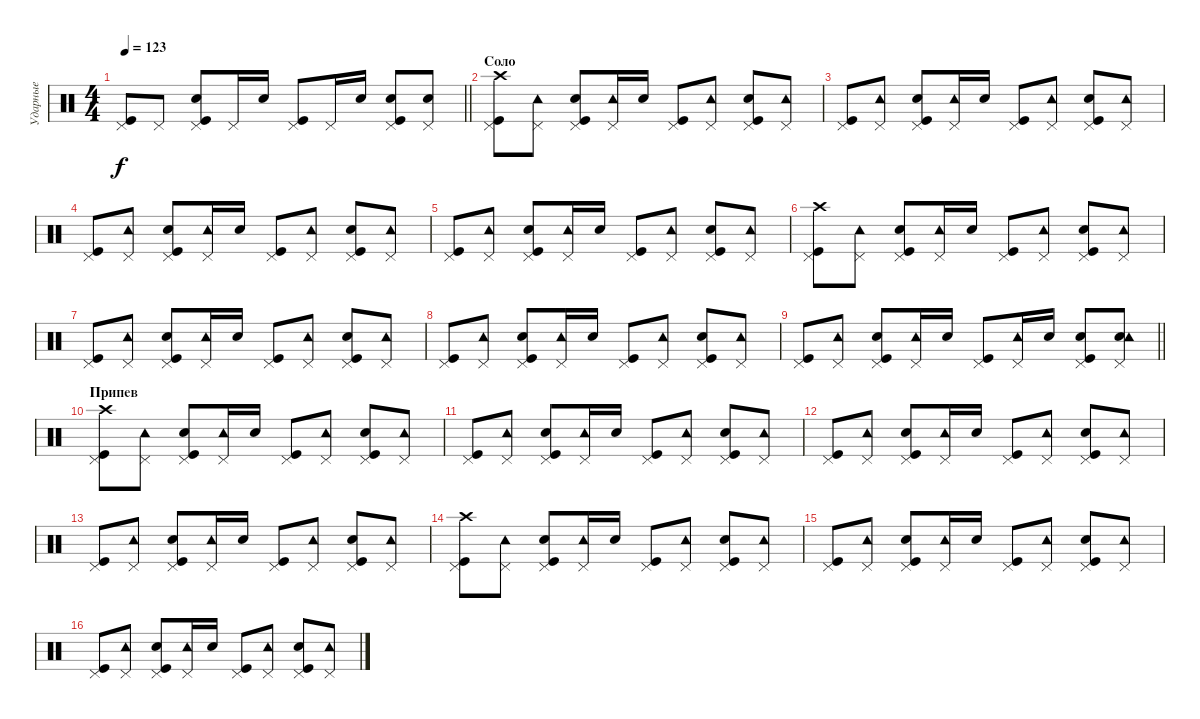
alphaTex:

\track ("Ударные" "Ударные") {instrument percussion}
\staff {score}
\articulation defaults
\ts (4 4)
\tempo 123
\clef neutral
\barLineRight lightlight
\ks c
("Kick (hit)" "Pedal Hi-Hat (hit)").8{dy f} "Pedal Hi-Hat (hit)".8 ("Kick (hit)" "Pedal Hi-Hat (hit)" "Snare (hit) 2").8 "Pedal Hi-Hat (hit)".16 "Snare (hit) 2".16 ("Kick (hit)" "Pedal Hi-Hat (hit)").8 "Pedal Hi-Hat (hit)".16 "Snare (hit) 2".16 ("Kick (hit)" "Pedal Hi-Hat (hit)" "Snare (hit) 2").8 ("Pedal Hi-Hat (hit)" "Snare (hit) 2").8 |
\section ("" "Соло")
("Kick (hit)" "Pedal Hi-Hat (hit)" "Crash high (hit)").8 ("Pedal Hi-Hat (hit)" "Tambourine (hit)").8 ("Kick (hit)" "Pedal Hi-Hat (hit)" "Snare (hit) 2").8 ("Pedal Hi-Hat (hit)" "Tambourine (hit)").16 "Snare (hit) 2".16 ("Kick (hit)" "Pedal Hi-Hat (hit)").8 ("Pedal Hi-Hat (hit)" "Tambourine (hit)").8 ("Kick (hit)" "Pedal Hi-Hat (hit)" "Snare (hit) 2").8 ("Pedal Hi-Hat (hit)" "Tambourine (hit)").8 |
("Kick (hit)" "Pedal Hi-Hat (hit)").8 ("Pedal Hi-Hat (hit)" "Tambourine (hit)").8 ("Kick (hit)" "Pedal Hi-Hat (hit)" "Snare (hit) 2").8 ("Pedal Hi-Hat (hit)" "Tambourine (hit)").16 "Snare (hit) 2".16 ("Kick (hit)" "Pedal Hi-Hat (hit)").8 ("Pedal Hi-Hat (hit)" "Tambourine (hit)").8 ("Kick (hit)" "Pedal Hi-Hat (hit)" "Snare (hit) 2").8 ("Pedal Hi-Hat (hit)" "Tambourine (hit)").8 |
("Kick (hit)" "Pedal Hi-Hat (hit)").8 ("Pedal Hi-Hat (hit)" "Tambourine (hit)").8 ("Kick (hit)" "Pedal Hi-Hat (hit)" "Snare (hit) 2").8 ("Pedal Hi-Hat (hit)" "Tambourine (hit)").16 "Snare (hit) 2".16 ("Kick (hit)" "Pedal Hi-Hat (hit)").8 ("Pedal Hi-Hat (hit)" "Tambourine (hit)").8 ("Kick (hit)" "Pedal Hi-Hat (hit)" "Snare (hit) 2").8 ("Pedal Hi-Hat (hit)" "Tambourine (hit)").8 |
("Kick (hit)" "Pedal Hi-Hat (hit)").8 ("Pedal Hi-Hat (hit)" "Tambourine (hit)").8 ("Kick (hit)" "Pedal Hi-Hat (hit)" "Snare (hit) 2").8 ("Pedal Hi-Hat (hit)" "Tambourine (hit)").16 "Snare (hit) 2".16 ("Kick (hit)" "Pedal Hi-Hat (hit)").8 ("Pedal Hi-Hat (hit)" "Tambourine (hit)").8 ("Kick (hit)" "Pedal Hi-Hat (hit)" "Snare (hit) 2").8 ("Pedal Hi-Hat (hit)" "Tambourine (hit)").8 |
("Kick (hit)" "Pedal Hi-Hat (hit)" "Crash high (hit)").8 ("Pedal Hi-Hat (hit)" "Tambourine (hit)").8 ("Kick (hit)" "Pedal Hi-Hat (hit)" "Snare (hit) 2").8 ("Pedal Hi-Hat (hit)" "Tambourine (hit)").16 "Snare (hit) 2".16 ("Kick (hit)" "Pedal Hi-Hat (hit)").8 ("Pedal Hi-Hat (hit)" "Tambourine (hit)").8 ("Kick (hit)" "Pedal Hi-Hat (hit)" "Snare (hit) 2").8 ("Pedal Hi-Hat (hit)" "Tambourine (hit)").8 |
("Kick (hit)" "Pedal Hi-Hat (hit)").8 ("Pedal Hi-Hat (hit)" "Tambourine (hit)").8 ("Kick (hit)" "Pedal Hi-Hat (hit)" "Snare (hit) 2").8 ("Pedal Hi-Hat (hit)" "Tambourine (hit)").16 "Snare (hit) 2".16 ("Kick (hit)" "Pedal Hi-Hat (hit)").8 ("Pedal Hi-Hat (hit)" "Tambourine (hit)").8 ("Kick (hit)" "Pedal Hi-Hat (hit)" "Snare (hit) 2").8 ("Pedal Hi-Hat (hit)" "Tambourine (hit)").8 |
("Kick (hit)" "Pedal Hi-Hat (hit)").8 ("Pedal Hi-Hat (hit)" "Tambourine (hit)").8 ("Kick (hit)" "Pedal Hi-Hat (hit)" "Snare (hit) 2").8 ("Pedal Hi-Hat (hit)" "Tambourine (hit)").16 "Snare (hit) 2".16 ("Kick (hit)" "Pedal Hi-Hat (hit)").8 ("Pedal Hi-Hat (hit)" "Tambourine (hit)").8 ("Kick (hit)" "Pedal Hi-Hat (hit)" "Snare (hit) 2").8 ("Pedal Hi-Hat (hit)" "Tambourine (hit)").8 |
\barLineRight lightlight
("Kick (hit)" "Pedal Hi-Hat (hit)").8 ("Pedal Hi-Hat (hit)" "Tambourine (hit)").8 ("Kick (hit)" "Pedal Hi-Hat (hit)" "Snare (hit) 2").8 ("Pedal Hi-Hat (hit)" "Tambourine (hit)").16 "Snare (hit) 2".16 ("Kick (hit)" "Pedal Hi-Hat (hit)").8 ("Pedal Hi-Hat (hit)" "Tambourine (hit)").16 "Snare (hit) 2".16 ("Kick (hit)" "Pedal Hi-Hat (hit)" "Snare (hit) 2").8 ("Pedal Hi-Hat (hit)" "Snare (hit) 2" "Tambourine (hit)").8 |
\section ("" "Припев")
("Kick (hit)" "Pedal Hi-Hat (hit)" "Crash high (hit)").8 ("Pedal Hi-Hat (hit)" "Tambourine (hit)").8 ("Kick (hit)" "Pedal Hi-Hat (hit)" "Snare (hit) 2").8 ("Pedal Hi-Hat (hit)" "Tambourine (hit)").16 "Snare (hit) 2".16 ("Kick (hit)" "Pedal Hi-Hat (hit)").8 ("Pedal Hi-Hat (hit)" "Tambourine (hit)").8 ("Kick (hit)" "Pedal Hi-Hat (hit)" "Snare (hit) 2").8 ("Pedal Hi-Hat (hit)" "Tambourine (hit)").8 |
("Kick (hit)" "Pedal Hi-Hat (hit)").8 ("Pedal Hi-Hat (hit)" "Tambourine (hit)").8 ("Kick (hit)" "Pedal Hi-Hat (hit)" "Snare (hit) 2").8 ("Pedal Hi-Hat (hit)" "Tambourine (hit)").16 "Snare (hit) 2".16 ("Kick (hit)" "Pedal Hi-Hat (hit)").8 ("Pedal Hi-Hat (hit)" "Tambourine (hit)").8 ("Kick (hit)" "Pedal Hi-Hat (hit)" "Snare (hit) 2").8 ("Pedal Hi-Hat (hit)" "Tambourine (hit)").8 |
("Kick (hit)" "Pedal Hi-Hat (hit)").8 ("Pedal Hi-Hat (hit)" "Tambourine (hit)").8 ("Kick (hit)" "Pedal Hi-Hat (hit)" "Snare (hit) 2").8 ("Pedal Hi-Hat (hit)" "Tambourine (hit)").16 "Snare (hit) 2".16 ("Kick (hit)" "Pedal Hi-Hat (hit)").8 ("Pedal Hi-Hat (hit)" "Tambourine (hit)").8 ("Kick (hit)" "Pedal Hi-Hat (hit)" "Snare (hit) 2").8 ("Pedal Hi-Hat (hit)" "Tambourine (hit)").8 |
("Kick (hit)" "Pedal Hi-Hat (hit)").8 ("Pedal Hi-Hat (hit)" "Tambourine (hit)").8 ("Kick (hit)" "Pedal Hi-Hat (hit)" "Snare (hit) 2").8 ("Pedal Hi-Hat (hit)" "Tambourine (hit)").16 "Snare (hit) 2".16 ("Kick (hit)" "Pedal Hi-Hat (hit)").8 ("Pedal Hi-Hat (hit)" "Tambourine (hit)").8 ("Kick (hit)" "Pedal Hi-Hat (hit)" "Snare (hit) 2").8 ("Pedal Hi-Hat (hit)" "Tambourine (hit)").8 |
("Kick (hit)" "Pedal Hi-Hat (hit)" "Crash high (hit)").8 ("Pedal Hi-Hat (hit)" "Tambourine (hit)").8 ("Kick (hit)" "Pedal Hi-Hat (hit)" "Snare (hit) 2").8 ("Pedal Hi-Hat (hit)" "Tambourine (hit)").16 "Snare (hit) 2".16 ("Kick (hit)" "Pedal Hi-Hat (hit)").8 ("Pedal Hi-Hat (hit)" "Tambourine (hit)").8 ("Kick (hit)" "Pedal Hi-Hat (hit)" "Snare (hit) 2").8 ("Pedal Hi-Hat (hit)" "Tambourine (hit)").8 |
("Kick (hit)" "Pedal Hi-Hat (hit)").8 ("Pedal Hi-Hat (hit)" "Tambourine (hit)").8 ("Kick (hit)" "Pedal Hi-Hat (hit)" "Snare (hit) 2").8 ("Pedal Hi-Hat (hit)" "Tambourine (hit)").16 "Snare (hit) 2".16 ("Kick (hit)" "Pedal Hi-Hat (hit)").8 ("Pedal Hi-Hat (hit)" "Tambourine (hit)").8 ("Kick (hit)" "Pedal Hi-Hat (hit)" "Snare (hit) 2").8 ("Pedal Hi-Hat (hit)" "Tambourine (hit)").8 |
("Kick (hit)" "Pedal Hi-Hat (hit)").8 ("Pedal Hi-Hat (hit)" "Tambourine (hit)").8 ("Kick (hit)" "Pedal Hi-Hat (hit)" "Snare (hit) 2").8 ("Pedal Hi-Hat (hit)" "Tambourine (hit)").16 "Snare (hit) 2".16 ("Kick (hit)" "Pedal Hi-Hat (hit)").8 ("Pedal Hi-Hat (hit)" "Tambourine (hit)").8 ("Kick (hit)" "Pedal Hi-Hat (hit)" "Snare (hit) 2").8 ("Pedal Hi-Hat (hit)" "Tambourine (hit)").8
